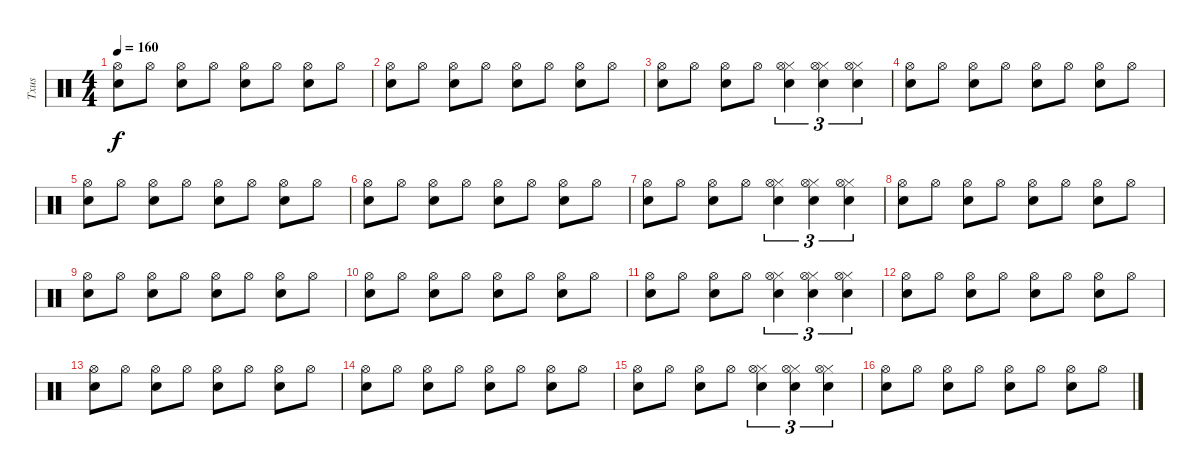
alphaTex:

\track ("Txus" "Txus") {instrument percussion}
\staff {score}
\articulation defaults
\ts (4 4)
\tempo 160
\clef neutral
\ks c
("Snare (hit) 2" "Hi-Hat (open)").8{dy f} "Hi-Hat (open)".8 ("Snare (hit) 2" "Hi-Hat (open)").8 "Hi-Hat (open)".8 ("Snare (hit) 2" "Hi-Hat (open)").8 "Hi-Hat (open)".8 ("Snare (hit) 2" "Hi-Hat (open)").8 "Hi-Hat (open)".8 |
("Snare (hit) 2" "Hi-Hat (open)").8 "Hi-Hat (open)".8 ("Snare (hit) 2" "Hi-Hat (open)").8 "Hi-Hat (open)".8 ("Snare (hit) 2" "Hi-Hat (open)").8 "Hi-Hat (open)".8 ("Snare (hit) 2" "Hi-Hat (open)").8 "Hi-Hat (open)".8 |
("Snare (hit) 2" "Hi-Hat (open)").8 "Hi-Hat (open)".8 ("Snare (hit) 2" "Hi-Hat (open)").8 "Hi-Hat (open)".8 ("Snare (hit) 2" "Hi-Hat (closed)" "Hi-Hat (open)").4{tu (3 2)} ("Snare (hit) 2" "Hi-Hat (closed)" "Hi-Hat (open)").4{tu (3 2)} ("Snare (hit) 2" "Hi-Hat (closed)" "Hi-Hat (open)").4{tu (3 2)} |
("Snare (hit) 2" "Hi-Hat (open)").8 "Hi-Hat (open)".8 ("Snare (hit) 2" "Hi-Hat (open)").8 "Hi-Hat (open)".8 ("Snare (hit) 2" "Hi-Hat (open)").8 "Hi-Hat (open)".8 ("Snare (hit) 2" "Hi-Hat (open)").8 "Hi-Hat (open)".8 |
("Snare (hit) 2" "Hi-Hat (open)").8 "Hi-Hat (open)".8 ("Snare (hit) 2" "Hi-Hat (open)").8 "Hi-Hat (open)".8 ("Snare (hit) 2" "Hi-Hat (open)").8 "Hi-Hat (open)".8 ("Snare (hit) 2" "Hi-Hat (open)").8 "Hi-Hat (open)".8 |
("Snare (hit) 2" "Hi-Hat (open)").8 "Hi-Hat (open)".8 ("Snare (hit) 2" "Hi-Hat (open)").8 "Hi-Hat (open)".8 ("Snare (hit) 2" "Hi-Hat (open)").8 "Hi-Hat (open)".8 ("Snare (hit) 2" "Hi-Hat (open)").8 "Hi-Hat (open)".8 |
("Snare (hit) 2" "Hi-Hat (open)").8 "Hi-Hat (open)".8 ("Snare (hit) 2" "Hi-Hat (open)").8 "Hi-Hat (open)".8 ("Snare (hit) 2" "Hi-Hat (closed)" "Hi-Hat (open)").4{tu (3 2)} ("Snare (hit) 2" "Hi-Hat (closed)" "Hi-Hat (open)").4{tu (3 2)} ("Snare (hit) 2" "Hi-Hat (closed)" "Hi-Hat (open)").4{tu (3 2)} |
("Snare (hit) 2" "Hi-Hat (open)").8 "Hi-Hat (open)".8 ("Snare (hit) 2" "Hi-Hat (open)").8 "Hi-Hat (open)".8 ("Snare (hit) 2" "Hi-Hat (open)").8 "Hi-Hat (open)".8 ("Snare (hit) 2" "Hi-Hat (open)").8 "Hi-Hat (open)".8 |
("Snare (hit) 2" "Hi-Hat (open)").8 "Hi-Hat (open)".8 ("Snare (hit) 2" "Hi-Hat (open)").8 "Hi-Hat (open)".8 ("Snare (hit) 2" "Hi-Hat (open)").8 "Hi-Hat (open)".8 ("Snare (hit) 2" "Hi-Hat (open)").8 "Hi-Hat (open)".8 |
("Snare (hit) 2" "Hi-Hat (open)").8 "Hi-Hat (open)".8 ("Snare (hit) 2" "Hi-Hat (open)").8 "Hi-Hat (open)".8 ("Snare (hit) 2" "Hi-Hat (open)").8 "Hi-Hat (open)".8 ("Snare (hit) 2" "Hi-Hat (open)").8 "Hi-Hat (open)".8 |
("Snare (hit) 2" "Hi-Hat (open)").8 "Hi-Hat (open)".8 ("Snare (hit) 2" "Hi-Hat (open)").8 "Hi-Hat (open)".8 ("Snare (hit) 2" "Hi-Hat (closed)" "Hi-Hat (open)").4{tu (3 2)} ("Snare (hit) 2" "Hi-Hat (closed)" "Hi-Hat (open)").4{tu (3 2)} ("Snare (hit) 2" "Hi-Hat (closed)" "Hi-Hat (open)").4{tu (3 2)} |
("Snare (hit) 2" "Hi-Hat (open)").8 "Hi-Hat (open)".8 ("Snare (hit) 2" "Hi-Hat (open)").8 "Hi-Hat (open)".8 ("Snare (hit) 2" "Hi-Hat (open)").8 "Hi-Hat (open)".8 ("Snare (hit) 2" "Hi-Hat (open)").8 "Hi-Hat (open)".8 |
("Snare (hit) 2" "Hi-Hat (open)").8 "Hi-Hat (open)".8 ("Snare (hit) 2" "Hi-Hat (open)").8 "Hi-Hat (open)".8 ("Snare (hit) 2" "Hi-Hat (open)").8 "Hi-Hat (open)".8 ("Snare (hit) 2" "Hi-Hat (open)").8 "Hi-Hat (open)".8 |
("Snare (hit) 2" "Hi-Hat (open)").8 "Hi-Hat (open)".8 ("Snare (hit) 2" "Hi-Hat (open)").8 "Hi-Hat (open)".8 ("Snare (hit) 2" "Hi-Hat (open)").8 "Hi-Hat (open)".8 ("Snare (hit) 2" "Hi-Hat (open)").8 "Hi-Hat (open)".8 |
("Snare (hit) 2" "Hi-Hat (open)").8 "Hi-Hat (open)".8 ("Snare (hit) 2" "Hi-Hat (open)").8 "Hi-Hat (open)".8 ("Snare (hit) 2" "Hi-Hat (closed)" "Hi-Hat (open)").4{tu (3 2)} ("Snare (hit) 2" "Hi-Hat (closed)" "Hi-Hat (open)").4{tu (3 2)} ("Snare (hit) 2" "Hi-Hat (closed)" "Hi-Hat (open)").4{tu (3 2)} |
("Snare (hit) 2" "Hi-Hat (open)").8 "Hi-Hat (open)".8 ("Snare (hit) 2" "Hi-Hat (open)").8 "Hi-Hat (open)".8 ("Snare (hit) 2" "Hi-Hat (open)").8 "Hi-Hat (open)".8 ("Snare (hit) 2" "Hi-Hat (open)").8 "Hi-Hat (open)".8
